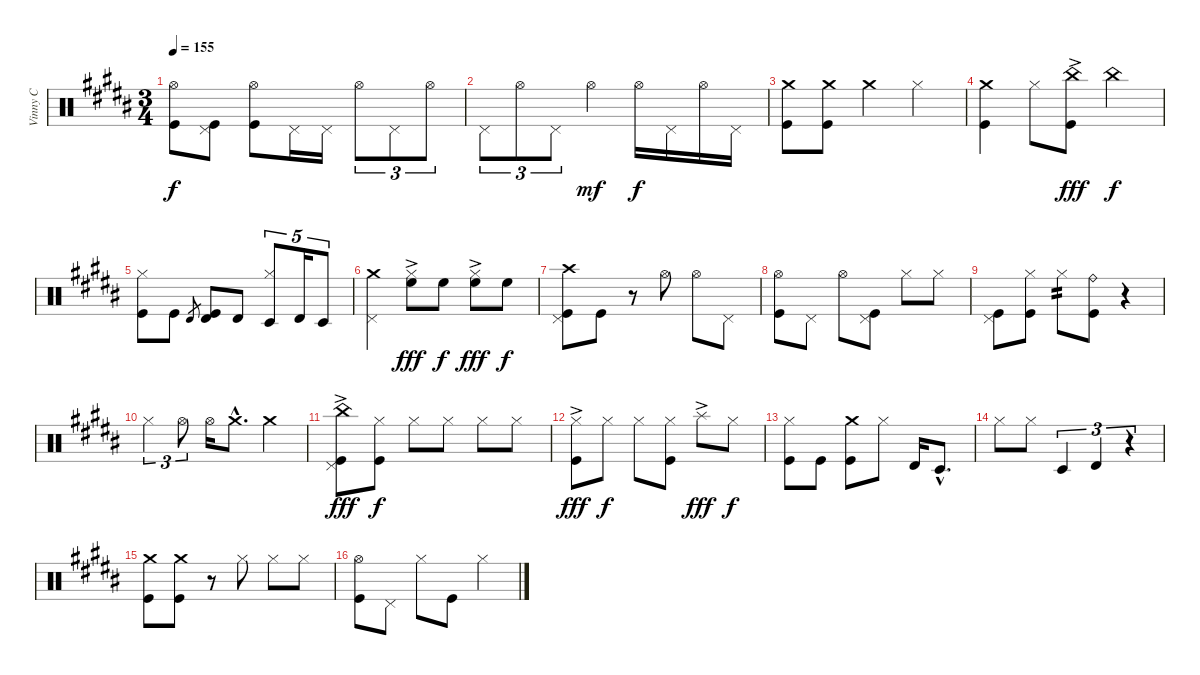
\track ("Vinny C" "Vinny C") {instrument percussion}
\staff {score}
\articulation defaults
\ts (3 4)
\tempo 155
\clef neutral
\ks b
("Hi-Hat (open)" "Kick (hit)").8{dy f} ("Pedal Hi-Hat (hit)" "Kick (hit)").8 ("Hi-Hat (open)" "Kick (hit)").8 "Pedal Hi-Hat (hit)".16 "Pedal Hi-Hat (hit)".16 "Hi-Hat (open)".8{tu (3 2)} "Pedal Hi-Hat (hit)".8{tu (3 2)} "Hi-Hat (open)".8{tu (3 2)} |
"Pedal Hi-Hat (hit)".8{tu (3 2)} "Hi-Hat (open)".8{tu (3 2)} "Pedal Hi-Hat (hit)".8{tu (3 2)} "Hi-Hat (open)".4{dy mf} "Hi-Hat (open)".16{dy f} "Pedal Hi-Hat (hit)".16 "Hi-Hat (open)".16 "Pedal Hi-Hat (hit)".16 |
("Crash medium (hit)" "Kick (hit)").8 ("Crash medium (hit)" "Kick (hit)").8 "Crash medium (hit)".4 "Hi-Hat (closed)".4 |
("Crash medium (hit)" "Kick (hit)").4 "Hi-Hat (closed)".8 ("China (hit)"{ac} "Kick (hit)").8{dy fff} "China (hit)".4{dy f} |
("Hi-Hat (closed)" "Kick (hit)").8 "Kick (hit)".8 "Timbale high (hit)".8{gr} ("Timbale high (hit)" "Kick (hit)").8 "Timbale high (hit)".8 ("Hi-Hat (closed)" "Timbale low (hit)").8{tu (5 4)} "Timbale high (hit)".16{tu (5 4)} "Timbale low (hit)".8{tu (5 4)} |
("Crash medium (hit)" "Pedal Hi-Hat (hit)").4 ("Hi-Hat (closed)" "High Floor Tom (hit)"{ac}).8{dy fff} "High Floor Tom (hit)".8{dy f} ("Hi-Hat (closed)" "High Floor Tom (hit)"{ac}).8{dy fff} "High Floor Tom (hit)".8{dy f} |
("Crash high (hit)" "Pedal Hi-Hat (hit)" "Kick (hit)").8 "Kick (hit)".8 r.8 "Hi-Hat (open)".8 "Hi-Hat (open)".8 "Pedal Hi-Hat (hit)".8 |
("Hi-Hat (open)" "Kick (hit)").8 "Pedal Hi-Hat (hit)".8 "Hi-Hat (open)".8 ("Pedal Hi-Hat (hit)" "Kick (hit)").8 "Hi-Hat (closed)".8 "Hi-Hat (closed)".8 |
("Pedal Hi-Hat (hit)" "Kick (hit)").8 ("Hi-Hat (closed)" "Kick (hit)").8 "Hi-Hat (closed)".8{tp 2} ("Ride (bell)" "Kick (hit)").8 r.4 |
"Hi-Hat (closed)".4{tu (3 2)} "Hi-Hat (open)".8{tu (3 2)} "Hi-Hat (open)".16 "Crash medium (hit)"{hac}.8{d} "Crash medium (hit)".4 |
("China (hit)"{ac} "Pedal Hi-Hat (hit)" "Kick (hit)").8{dy fff} ("Hi-Hat (closed)" "Kick (hit)").8{dy f} "Hi-Hat (closed)".8 "Hi-Hat (closed)".8 "Hi-Hat (closed)".8 "Hi-Hat (closed)".8 |
("Hi-Hat (closed)"{ac} "Kick (hit)").8{dy fff} "Hi-Hat (closed)".8{dy f} "Hi-Hat (closed)".8 ("Hi-Hat (closed)" "Kick (hit)").8 "Splash (hit)"{ac}.8{dy fff} "Hi-Hat (closed)".8{dy f} |
("Hi-Hat (closed)" "Kick (hit)").8 "Kick (hit)".8 ("Crash medium (hit)" "Kick (hit)").8 "Hi-Hat (closed)".8 "Timbale high (hit)".16 "Timbale low (hit)"{hac}.8{d} |
"Hi-Hat (closed)".8 "Hi-Hat (closed)".8 "Timbale low (hit)".4{tu (3 2)} "Timbale high (hit)".4{tu (3 2)} r.4{tu (3 2)} |
("Crash medium (hit)" "Kick (hit)").8 ("Crash medium (hit)" "Kick (hit)").8 r.8 "Hi-Hat (closed)".8 "Hi-Hat (closed)".8 "Hi-Hat (closed)".8 |
("Hi-Hat (open)" "Kick (hit)").8 "Pedal Hi-Hat (hit)".8 "Hi-Hat (closed)".8 "Kick (hit)".8 "Hi-Hat (closed)".4
